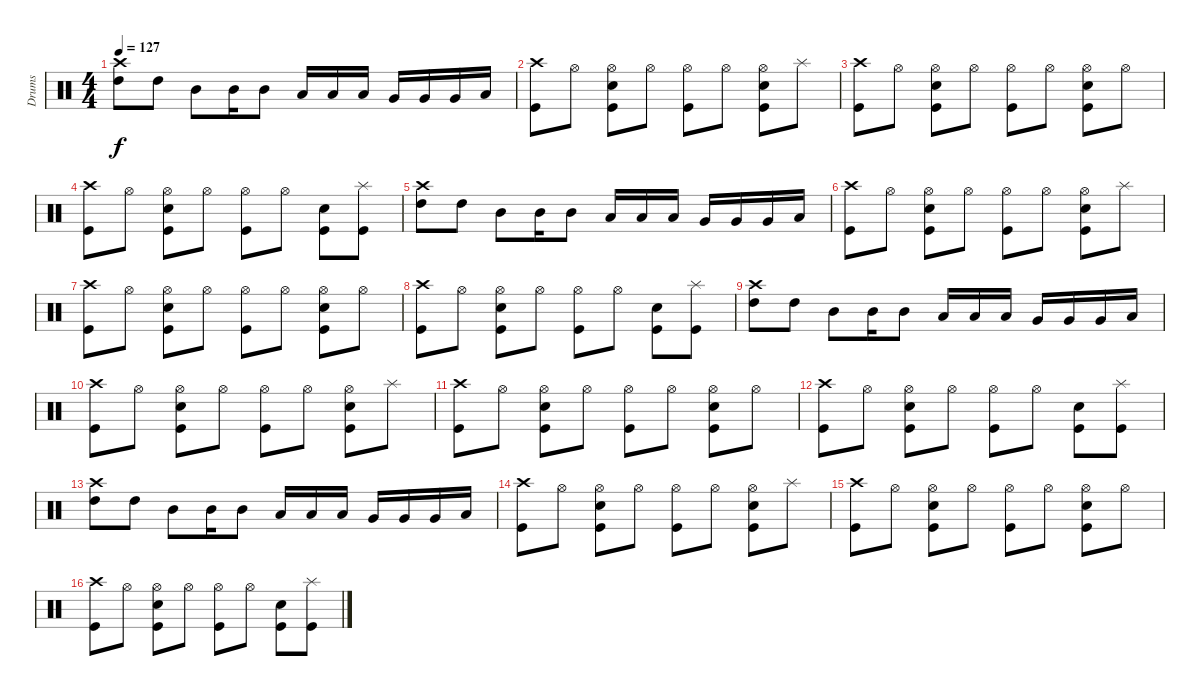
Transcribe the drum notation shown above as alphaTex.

\track ("Drums" "Drums") {instrument percussion}
\staff {score}
\articulation defaults
\ts (4 4)
\tempo 127
\clef neutral
\ks c
("Crash high (hit)" "High Tom (hit)").8{dy f} "High Tom (hit)".8 "Mid Tom (hit)".8 "Mid Tom (hit)".16 "Mid Tom (hit)".8 "Low Tom (hit)".16 "Low Tom (hit)".16 "Low Tom (hit)".16 "Very Low Tom (hit)".16 "Very Low Tom (hit)".16 "Very Low Tom (hit)".16 "Low Floor Tom (hit)".16 |
("Crash high (hit)" "Kick (hit)").8 "Hi-Hat (open)".8 ("Hi-Hat (open)" "Electric Snare (hit)" "Kick (hit)").8 "Hi-Hat (open)".8 ("Hi-Hat (open)" "Kick (hit)").8 "Hi-Hat (open)".8 ("Hi-Hat (open)" "Electric Snare (hit)" "Kick (hit)").8 "Splash (hit)".8 |
("Crash high (hit)" "Kick (hit)").8 "Hi-Hat (open)".8 ("Hi-Hat (open)" "Electric Snare (hit)" "Kick (hit)").8 "Hi-Hat (open)".8 ("Hi-Hat (open)" "Kick (hit)").8 "Hi-Hat (open)".8 ("Hi-Hat (open)" "Electric Snare (hit)" "Kick (hit)").8 "Hi-Hat (open)".8 |
("Crash high (hit)" "Kick (hit)").8 "Hi-Hat (open)".8 ("Hi-Hat (open)" "Electric Snare (hit)" "Kick (hit)").8 "Hi-Hat (open)".8 ("Hi-Hat (open)" "Kick (hit)").8 "Hi-Hat (open)".8 ("Electric Snare (hit)" "Kick (hit)").8 ("Splash (hit)" "Kick (hit)").8 |
("Crash high (hit)" "High Tom (hit)").8 "High Tom (hit)".8 "Mid Tom (hit)".8 "Mid Tom (hit)".16 "Mid Tom (hit)".8 "Low Tom (hit)".16 "Low Tom (hit)".16 "Low Tom (hit)".16 "Very Low Tom (hit)".16 "Very Low Tom (hit)".16 "Very Low Tom (hit)".16 "Low Floor Tom (hit)".16 |
("Crash high (hit)" "Kick (hit)").8 "Hi-Hat (open)".8 ("Hi-Hat (open)" "Electric Snare (hit)" "Kick (hit)").8 "Hi-Hat (open)".8 ("Hi-Hat (open)" "Kick (hit)").8 "Hi-Hat (open)".8 ("Hi-Hat (open)" "Electric Snare (hit)" "Kick (hit)").8 "Splash (hit)".8 |
("Crash high (hit)" "Kick (hit)").8 "Hi-Hat (open)".8 ("Hi-Hat (open)" "Electric Snare (hit)" "Kick (hit)").8 "Hi-Hat (open)".8 ("Hi-Hat (open)" "Kick (hit)").8 "Hi-Hat (open)".8 ("Hi-Hat (open)" "Electric Snare (hit)" "Kick (hit)").8 "Hi-Hat (open)".8 |
("Crash high (hit)" "Kick (hit)").8 "Hi-Hat (open)".8 ("Hi-Hat (open)" "Electric Snare (hit)" "Kick (hit)").8 "Hi-Hat (open)".8 ("Hi-Hat (open)" "Kick (hit)").8 "Hi-Hat (open)".8 ("Electric Snare (hit)" "Kick (hit)").8 ("Splash (hit)" "Kick (hit)").8 |
("Crash high (hit)" "High Tom (hit)").8 "High Tom (hit)".8 "Mid Tom (hit)".8 "Mid Tom (hit)".16 "Mid Tom (hit)".8 "Low Tom (hit)".16 "Low Tom (hit)".16 "Low Tom (hit)".16 "Very Low Tom (hit)".16 "Very Low Tom (hit)".16 "Very Low Tom (hit)".16 "Low Floor Tom (hit)".16 |
("Crash high (hit)" "Kick (hit)").8 "Hi-Hat (open)".8 ("Hi-Hat (open)" "Electric Snare (hit)" "Kick (hit)").8 "Hi-Hat (open)".8 ("Hi-Hat (open)" "Kick (hit)").8 "Hi-Hat (open)".8 ("Hi-Hat (open)" "Electric Snare (hit)" "Kick (hit)").8 "Splash (hit)".8 |
("Crash high (hit)" "Kick (hit)").8 "Hi-Hat (open)".8 ("Hi-Hat (open)" "Electric Snare (hit)" "Kick (hit)").8 "Hi-Hat (open)".8 ("Hi-Hat (open)" "Kick (hit)").8 "Hi-Hat (open)".8 ("Hi-Hat (open)" "Electric Snare (hit)" "Kick (hit)").8 "Hi-Hat (open)".8 |
("Crash high (hit)" "Kick (hit)").8 "Hi-Hat (open)".8 ("Hi-Hat (open)" "Electric Snare (hit)" "Kick (hit)").8 "Hi-Hat (open)".8 ("Hi-Hat (open)" "Kick (hit)").8 "Hi-Hat (open)".8 ("Electric Snare (hit)" "Kick (hit)").8 ("Splash (hit)" "Kick (hit)").8 |
("Crash high (hit)" "High Tom (hit)").8 "High Tom (hit)".8 "Mid Tom (hit)".8 "Mid Tom (hit)".16 "Mid Tom (hit)".8 "Low Tom (hit)".16 "Low Tom (hit)".16 "Low Tom (hit)".16 "Very Low Tom (hit)".16 "Very Low Tom (hit)".16 "Very Low Tom (hit)".16 "Low Floor Tom (hit)".16 |
("Crash high (hit)" "Kick (hit)").8 "Hi-Hat (open)".8 ("Hi-Hat (open)" "Electric Snare (hit)" "Kick (hit)").8 "Hi-Hat (open)".8 ("Hi-Hat (open)" "Kick (hit)").8 "Hi-Hat (open)".8 ("Hi-Hat (open)" "Electric Snare (hit)" "Kick (hit)").8 "Splash (hit)".8 |
("Crash high (hit)" "Kick (hit)").8 "Hi-Hat (open)".8 ("Hi-Hat (open)" "Electric Snare (hit)" "Kick (hit)").8 "Hi-Hat (open)".8 ("Hi-Hat (open)" "Kick (hit)").8 "Hi-Hat (open)".8 ("Hi-Hat (open)" "Electric Snare (hit)" "Kick (hit)").8 "Hi-Hat (open)".8 |
("Crash high (hit)" "Kick (hit)").8 "Hi-Hat (open)".8 ("Hi-Hat (open)" "Electric Snare (hit)" "Kick (hit)").8 "Hi-Hat (open)".8 ("Hi-Hat (open)" "Kick (hit)").8 "Hi-Hat (open)".8 ("Electric Snare (hit)" "Kick (hit)").8 ("Splash (hit)" "Kick (hit)").8
